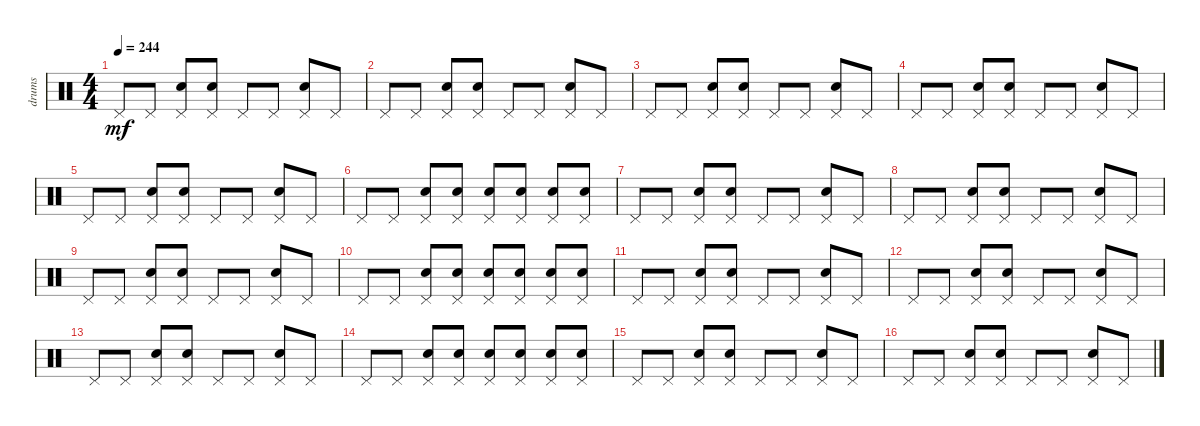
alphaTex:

\track ("drums" "drums") {instrument percussion}
\staff {score}
\articulation defaults
\ts (4 4)
\tempo 244
\clef neutral
\ks c "Pedal Hi-Hat (hit)".8{dy mf} "Pedal Hi-Hat (hit)".8
("Pedal Hi-Hat (hit)" "Snare (hit) 2").8 ("Pedal Hi-Hat (hit)" "Snare (hit) 2").8 "Pedal Hi-Hat (hit)".8 "Pedal Hi-Hat (hit)".8 ("Pedal Hi-Hat (hit)" "Snare (hit) 2").8 "Pedal Hi-Hat (hit)".8 |
"Pedal Hi-Hat (hit)".8 "Pedal Hi-Hat (hit)".8 ("Pedal Hi-Hat (hit)" "Snare (hit) 2").8 ("Pedal Hi-Hat (hit)" "Snare (hit) 2").8 "Pedal Hi-Hat (hit)".8 "Pedal Hi-Hat (hit)".8 ("Pedal Hi-Hat (hit)" "Snare (hit) 2").8 "Pedal Hi-Hat (hit)".8 |
"Pedal Hi-Hat (hit)".8 "Pedal Hi-Hat (hit)".8 ("Pedal Hi-Hat (hit)" "Snare (hit) 2").8 ("Pedal Hi-Hat (hit)" "Snare (hit) 2").8 "Pedal Hi-Hat (hit)".8 "Pedal Hi-Hat (hit)".8 ("Pedal Hi-Hat (hit)" "Snare (hit) 2").8 "Pedal Hi-Hat (hit)".8 |
"Pedal Hi-Hat (hit)".8 "Pedal Hi-Hat (hit)".8 ("Pedal Hi-Hat (hit)" "Snare (hit) 2").8 ("Pedal Hi-Hat (hit)" "Snare (hit) 2").8 "Pedal Hi-Hat (hit)".8 "Pedal Hi-Hat (hit)".8 ("Pedal Hi-Hat (hit)" "Snare (hit) 2").8 "Pedal Hi-Hat (hit)".8 |
"Pedal Hi-Hat (hit)".8 "Pedal Hi-Hat (hit)".8 ("Pedal Hi-Hat (hit)" "Snare (hit) 2").8 ("Pedal Hi-Hat (hit)" "Snare (hit) 2").8 "Pedal Hi-Hat (hit)".8 "Pedal Hi-Hat (hit)".8 ("Pedal Hi-Hat (hit)" "Snare (hit) 2").8 "Pedal Hi-Hat (hit)".8 |
"Pedal Hi-Hat (hit)".8 "Pedal Hi-Hat (hit)".8 ("Pedal Hi-Hat (hit)" "Snare (hit) 2").8 ("Pedal Hi-Hat (hit)" "Snare (hit) 2").8 ("Pedal Hi-Hat (hit)" "Snare (hit) 2").8 ("Pedal Hi-Hat (hit)" "Snare (hit) 2").8 ("Pedal Hi-Hat (hit)" "Snare (hit) 2").8 ("Pedal Hi-Hat (hit)" "Snare (hit) 2").8 |
"Pedal Hi-Hat (hit)".8 "Pedal Hi-Hat (hit)".8 ("Pedal Hi-Hat (hit)" "Snare (hit) 2").8 ("Pedal Hi-Hat (hit)" "Snare (hit) 2").8 "Pedal Hi-Hat (hit)".8 "Pedal Hi-Hat (hit)".8 ("Pedal Hi-Hat (hit)" "Snare (hit) 2").8 "Pedal Hi-Hat (hit)".8 |
"Pedal Hi-Hat (hit)".8 "Pedal Hi-Hat (hit)".8 ("Pedal Hi-Hat (hit)" "Snare (hit) 2").8 ("Pedal Hi-Hat (hit)" "Snare (hit) 2").8 "Pedal Hi-Hat (hit)".8 "Pedal Hi-Hat (hit)".8 ("Pedal Hi-Hat (hit)" "Snare (hit) 2").8 "Pedal Hi-Hat (hit)".8 |
"Pedal Hi-Hat (hit)".8 "Pedal Hi-Hat (hit)".8 ("Pedal Hi-Hat (hit)" "Snare (hit) 2").8 ("Pedal Hi-Hat (hit)" "Snare (hit) 2").8 "Pedal Hi-Hat (hit)".8 "Pedal Hi-Hat (hit)".8 ("Pedal Hi-Hat (hit)" "Snare (hit) 2").8 "Pedal Hi-Hat (hit)".8 |
"Pedal Hi-Hat (hit)".8 "Pedal Hi-Hat (hit)".8 ("Pedal Hi-Hat (hit)" "Snare (hit) 2").8 ("Pedal Hi-Hat (hit)" "Snare (hit) 2").8 ("Pedal Hi-Hat (hit)" "Snare (hit) 2").8 ("Pedal Hi-Hat (hit)" "Snare (hit) 2").8 ("Pedal Hi-Hat (hit)" "Snare (hit) 2").8 ("Pedal Hi-Hat (hit)" "Snare (hit) 2").8 |
"Pedal Hi-Hat (hit)".8 "Pedal Hi-Hat (hit)".8 ("Pedal Hi-Hat (hit)" "Snare (hit) 2").8 ("Pedal Hi-Hat (hit)" "Snare (hit) 2").8 "Pedal Hi-Hat (hit)".8 "Pedal Hi-Hat (hit)".8 ("Pedal Hi-Hat (hit)" "Snare (hit) 2").8 "Pedal Hi-Hat (hit)".8 |
"Pedal Hi-Hat (hit)".8 "Pedal Hi-Hat (hit)".8 ("Pedal Hi-Hat (hit)" "Snare (hit) 2").8 ("Pedal Hi-Hat (hit)" "Snare (hit) 2").8 "Pedal Hi-Hat (hit)".8 "Pedal Hi-Hat (hit)".8 ("Pedal Hi-Hat (hit)" "Snare (hit) 2").8 "Pedal Hi-Hat (hit)".8 |
"Pedal Hi-Hat (hit)".8 "Pedal Hi-Hat (hit)".8 ("Pedal Hi-Hat (hit)" "Snare (hit) 2").8 ("Pedal Hi-Hat (hit)" "Snare (hit) 2").8 "Pedal Hi-Hat (hit)".8 "Pedal Hi-Hat (hit)".8 ("Pedal Hi-Hat (hit)" "Snare (hit) 2").8 "Pedal Hi-Hat (hit)".8 |
"Pedal Hi-Hat (hit)".8 "Pedal Hi-Hat (hit)".8 ("Pedal Hi-Hat (hit)" "Snare (hit) 2").8 ("Pedal Hi-Hat (hit)" "Snare (hit) 2").8 ("Pedal Hi-Hat (hit)" "Snare (hit) 2").8 ("Pedal Hi-Hat (hit)" "Snare (hit) 2").8 ("Pedal Hi-Hat (hit)" "Snare (hit) 2").8 ("Pedal Hi-Hat (hit)" "Snare (hit) 2").8 |
"Pedal Hi-Hat (hit)".8 "Pedal Hi-Hat (hit)".8 ("Pedal Hi-Hat (hit)" "Snare (hit) 2").8 ("Pedal Hi-Hat (hit)" "Snare (hit) 2").8 "Pedal Hi-Hat (hit)".8 "Pedal Hi-Hat (hit)".8 ("Pedal Hi-Hat (hit)" "Snare (hit) 2").8 "Pedal Hi-Hat (hit)".8 |
"Pedal Hi-Hat (hit)".8 "Pedal Hi-Hat (hit)".8 ("Pedal Hi-Hat (hit)" "Snare (hit) 2").8 ("Pedal Hi-Hat (hit)" "Snare (hit) 2").8 "Pedal Hi-Hat (hit)".8 "Pedal Hi-Hat (hit)".8 ("Pedal Hi-Hat (hit)" "Snare (hit) 2").8 "Pedal Hi-Hat (hit)".8
